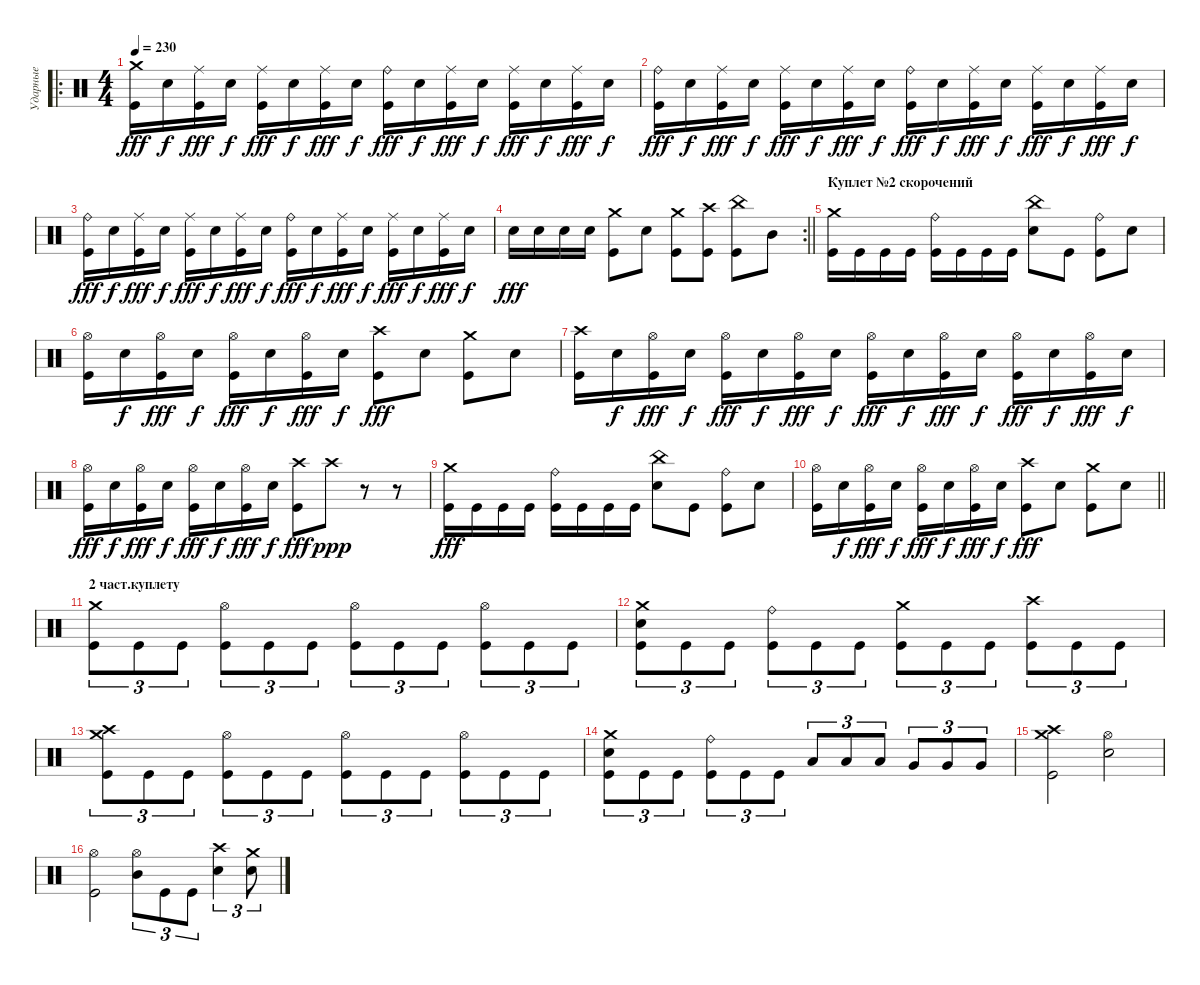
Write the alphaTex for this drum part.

\track ("Ударные" "Ударные") {instrument percussion}
\staff {score}
\articulation defaults
\ro
\ts (4 4)
\tempo 230
\clef neutral
\ks c
("Crash medium (hit)" "Kick (hit)").16{dy fff} "Electric Snare (hit)".16{dy f} ("Kick (hit)" "Ride (middle)").16{dy fff} "Electric Snare (hit)".16{dy f} ("Kick (hit)" "Ride (middle)").16{dy fff} "Electric Snare (hit)".16{dy f} ("Kick (hit)" "Ride (middle)").16{dy fff} "Electric Snare (hit)".16{dy f} ("Kick (hit)" "Ride (bell)").16{dy fff} "Electric Snare (hit)".16{dy f} ("Kick (hit)" "Ride (middle)").16{dy fff} "Electric Snare (hit)".16{dy f} ("Kick (hit)" "Ride (middle)").16{dy fff} "Electric Snare (hit)".16{dy f} ("Kick (hit)" "Ride (middle)").16{dy fff} "Electric Snare (hit)".16{dy f} |
("Kick (hit)" "Ride (bell)").16{dy fff} "Electric Snare (hit)".16{dy f} ("Kick (hit)" "Ride (middle)").16{dy fff} "Electric Snare (hit)".16{dy f} ("Kick (hit)" "Ride (middle)").16{dy fff} "Electric Snare (hit)".16{dy f} ("Kick (hit)" "Ride (middle)").16{dy fff} "Electric Snare (hit)".16{dy f} ("Kick (hit)" "Ride (bell)").16{dy fff} "Electric Snare (hit)".16{dy f} ("Kick (hit)" "Ride (middle)").16{dy fff} "Electric Snare (hit)".16{dy f} ("Kick (hit)" "Ride (middle)").16{dy fff} "Electric Snare (hit)".16{dy f} ("Kick (hit)" "Ride (middle)").16{dy fff} "Electric Snare (hit)".16{dy f} |
("Kick (hit)" "Ride (bell)").16{dy fff} "Electric Snare (hit)".16{dy f} ("Kick (hit)" "Ride (middle)").16{dy fff} "Electric Snare (hit)".16{dy f} ("Kick (hit)" "Ride (middle)").16{dy fff} "Electric Snare (hit)".16{dy f} ("Kick (hit)" "Ride (middle)").16{dy fff} "Electric Snare (hit)".16{dy f} ("Kick (hit)" "Ride (bell)").16{dy fff} "Electric Snare (hit)".16{dy f} ("Kick (hit)" "Ride (middle)").16{dy fff} "Electric Snare (hit)".16{dy f} ("Kick (hit)" "Ride (middle)").16{dy fff} "Electric Snare (hit)".16{dy f} ("Kick (hit)" "Ride (middle)").16{dy fff} "Electric Snare (hit)".16{dy f} |
\rc 2
\barLineRight lightlight "Electric Snare (hit)".16{dy fff} "Electric Snare (hit)".16 "Electric Snare (hit)".16 "Electric Snare (hit)".16
("Crash medium (hit)" "Kick (hit)").8 "Electric Snare (hit)".8 ("Crash medium (hit)" "Kick (hit)").8 ("Crash high (hit)" "Kick (hit)").8 ("China (hit)" "Kick (hit)").8 "Mid Tom (hit)".8 |
\section ("" "Куплет №2 скорочений")
("Kick (hit)" "Crash medium (hit)").16 "Kick (hit)".16 "Kick (hit)".16 "Kick (hit)".16 ("Kick (hit)" "Ride (bell)").16 "Kick (hit)".16 "Kick (hit)".16 "Kick (hit)".16 ("Electric Snare (hit)" "China (hit)").8 "Kick (hit)".8 ("Kick (hit)" "Ride (bell)").8 "Electric Snare (hit)".8 |
("Kick (hit)" "Hi-Hat (open)").16 "Electric Snare (hit)".16{dy f} ("Kick (hit)" "Hi-Hat (open)").16{dy fff} "Electric Snare (hit)".16{dy f} ("Kick (hit)" "Hi-Hat (open)").16{dy fff} "Electric Snare (hit)".16{dy f} ("Kick (hit)" "Hi-Hat (open)").16{dy fff} "Electric Snare (hit)".16{dy f} ("Crash high (hit)" "Kick (hit)").8{dy fff} "Electric Snare (hit)".8 ("Crash medium (hit)" "Kick (hit)").8 "Electric Snare (hit)".8 |
("Kick (hit)" "Crash high (hit)").16 "Electric Snare (hit)".16{dy f} ("Kick (hit)" "Hi-Hat (open)").16{dy fff} "Electric Snare (hit)".16{dy f} ("Kick (hit)" "Hi-Hat (open)").16{dy fff} "Electric Snare (hit)".16{dy f} ("Kick (hit)" "Hi-Hat (open)").16{dy fff} "Electric Snare (hit)".16{dy f} ("Kick (hit)" "Hi-Hat (open)").16{dy fff} "Electric Snare (hit)".16{dy f} ("Kick (hit)" "Hi-Hat (open)").16{dy fff} "Electric Snare (hit)".16{dy f} ("Kick (hit)" "Hi-Hat (open)").16{dy fff} "Electric Snare (hit)".16{dy f} ("Kick (hit)" "Hi-Hat (open)").16{dy fff} "Electric Snare (hit)".16{dy f} |
("Kick (hit)" "Hi-Hat (open)").16{dy fff} "Electric Snare (hit)".16{dy f} ("Kick (hit)" "Hi-Hat (open)").16{dy fff} "Electric Snare (hit)".16{dy f} ("Kick (hit)" "Hi-Hat (open)").16{dy fff} "Electric Snare (hit)".16{dy f} ("Kick (hit)" "Hi-Hat (open)").16{dy fff} "Electric Snare (hit)".16{dy f} ("Crash high (hit)" "Kick (hit)").8{dy fff} "Crash high (hit)".8{dy ppp} r.8 r.8 |
("Kick (hit)" "Crash medium (hit)").16{dy fff} "Kick (hit)".16 "Kick (hit)".16 "Kick (hit)".16 ("Kick (hit)" "Ride (bell)").16 "Kick (hit)".16 "Kick (hit)".16 "Kick (hit)".16 ("Electric Snare (hit)" "China (hit)").8 "Kick (hit)".8 ("Kick (hit)" "Ride (bell)").8 "Electric Snare (hit)".8 |
\barLineRight lightlight
("Kick (hit)" "Hi-Hat (open)").16 "Electric Snare (hit)".16{dy f} ("Kick (hit)" "Hi-Hat (open)").16{dy fff} "Electric Snare (hit)".16{dy f} ("Kick (hit)" "Hi-Hat (open)").16{dy fff} "Electric Snare (hit)".16{dy f} ("Kick (hit)" "Hi-Hat (open)").16{dy fff} "Electric Snare (hit)".16{dy f} ("Crash high (hit)" "Kick (hit)").8{dy fff} "Electric Snare (hit)".8 ("Crash medium (hit)" "Kick (hit)").8 "Electric Snare (hit)".8 |
\section ("" "2 част.куплету")
("Crash medium (hit)" "Kick (hit)").8{tu (3 2)} "Kick (hit)".8{tu (3 2)} "Kick (hit)".8{tu (3 2)} ("Kick (hit)" "Hi-Hat (open)").8{tu (3 2)} "Kick (hit)".8{tu (3 2)} "Kick (hit)".8{tu (3 2)} ("Kick (hit)" "Hi-Hat (open)").8{tu (3 2)} "Kick (hit)".8{tu (3 2)} "Kick (hit)".8{tu (3 2)} ("Kick (hit)" "Hi-Hat (open)").8{tu (3 2)} "Kick (hit)".8{tu (3 2)} "Kick (hit)".8{tu (3 2)} |
("Kick (hit)" "Electric Snare (hit)" "Crash medium (hit)").8{tu (3 2)} "Kick (hit)".8{tu (3 2)} "Kick (hit)".8{tu (3 2)} ("Kick (hit)" "Ride (bell)").8{tu (3 2)} "Kick (hit)".8{tu (3 2)} "Kick (hit)".8{tu (3 2)} ("Kick (hit)" "Crash medium (hit)").8{tu (3 2)} "Kick (hit)".8{tu (3 2)} "Kick (hit)".8{tu (3 2)} ("Kick (hit)" "Crash high (hit)").8{tu (3 2)} "Kick (hit)".8{tu (3 2)} "Kick (hit)".8{tu (3 2)} |
("Crash medium (hit)" "Kick (hit)" "Crash high (hit)").8{tu (3 2)} "Kick (hit)".8{tu (3 2)} "Kick (hit)".8{tu (3 2)} ("Kick (hit)" "Hi-Hat (open)").8{tu (3 2)} "Kick (hit)".8{tu (3 2)} "Kick (hit)".8{tu (3 2)} ("Kick (hit)" "Hi-Hat (open)").8{tu (3 2)} "Kick (hit)".8{tu (3 2)} "Kick (hit)".8{tu (3 2)} ("Kick (hit)" "Hi-Hat (open)").8{tu (3 2)} "Kick (hit)".8{tu (3 2)} "Kick (hit)".8{tu (3 2)} |
("Kick (hit)" "Electric Snare (hit)" "Crash medium (hit)").8{tu (3 2)} "Kick (hit)".8{tu (3 2)} "Kick (hit)".8{tu (3 2)} ("Kick (hit)" "Ride (bell)").8{tu (3 2)} "Kick (hit)".8{tu (3 2)} "Kick (hit)".8{tu (3 2)} "Low Tom (hit)".8{tu (3 2)} "Low Tom (hit)".8{tu (3 2)} "Low Tom (hit)".8{tu (3 2)} "Very Low Tom (hit)".8{tu (3 2)} "Very Low Tom (hit)".8{tu (3 2)} "Very Low Tom (hit)".8{tu (3 2)} |
("Crash medium (hit)" "Crash high (hit)" "Kick (hit)").2 ("Electric Snare (hit)" "Hi-Hat (open)").2 |
("Hi-Hat (open)" "Kick (hit)").2 ("Mid Tom (hit)" "Hi-Hat (open)").8{tu (3 2)} "Kick (hit)".8{tu (3 2)} "Kick (hit)".8{tu (3 2)} ("Electric Snare (hit)" "Crash high (hit)").4{tu (3 2)} ("Crash medium (hit)" "Electric Snare (hit)").8{tu (3 2)}
